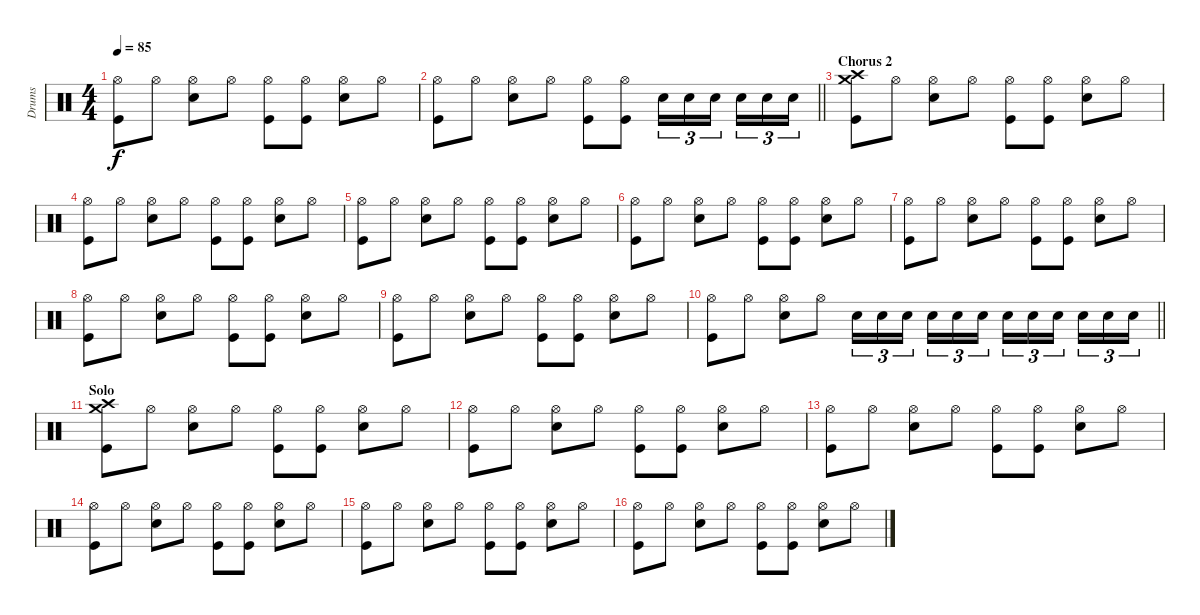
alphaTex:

\track ("Drums" "Drums") {instrument percussion}
\staff {score}
\articulation defaults
\ts (4 4)
\tempo 85
\clef neutral
\ks c
("Hi-Hat (open)" "Kick (hit)").8{dy f} "Hi-Hat (open)".8 ("Hi-Hat (open)" "Snare (hit) 2").8 "Hi-Hat (open)".8 ("Hi-Hat (open)" "Kick (hit)").8 ("Hi-Hat (open)" "Kick (hit)").8 ("Hi-Hat (open)" "Snare (hit) 2").8 "Hi-Hat (open)".8 |
\barLineRight lightlight
("Hi-Hat (open)" "Kick (hit)").8 "Hi-Hat (open)".8 ("Hi-Hat (open)" "Snare (hit) 2").8 "Hi-Hat (open)".8 ("Hi-Hat (open)" "Kick (hit)").8 ("Hi-Hat (open)" "Kick (hit)").8 "Snare (hit) 2".16{tu (3 2)} "Snare (hit) 2".16{tu (3 2)} "Snare (hit) 2".16{tu (3 2) beam splitsecondary} "Snare (hit) 2".16{tu (3 2)} "Snare (hit) 2".16{tu (3 2)} "Snare (hit) 2".16{tu (3 2)} |
\section ("" "Chorus 2")
("Crash high (hit)" "Crash medium (hit)" "Kick (hit)").8 "Hi-Hat (open)".8 ("Hi-Hat (open)" "Snare (hit) 2").8 "Hi-Hat (open)".8 ("Hi-Hat (open)" "Kick (hit)").8 ("Hi-Hat (open)" "Kick (hit)").8 ("Hi-Hat (open)" "Snare (hit) 2").8 "Hi-Hat (open)".8 |
("Hi-Hat (open)" "Kick (hit)").8 "Hi-Hat (open)".8 ("Hi-Hat (open)" "Snare (hit) 2").8 "Hi-Hat (open)".8 ("Hi-Hat (open)" "Kick (hit)").8 ("Hi-Hat (open)" "Kick (hit)").8 ("Hi-Hat (open)" "Snare (hit) 2").8 "Hi-Hat (open)".8 |
("Hi-Hat (open)" "Kick (hit)").8 "Hi-Hat (open)".8 ("Hi-Hat (open)" "Snare (hit) 2").8 "Hi-Hat (open)".8 ("Hi-Hat (open)" "Kick (hit)").8 ("Hi-Hat (open)" "Kick (hit)").8 ("Hi-Hat (open)" "Snare (hit) 2").8 "Hi-Hat (open)".8 |
("Hi-Hat (open)" "Kick (hit)").8 "Hi-Hat (open)".8 ("Hi-Hat (open)" "Snare (hit) 2").8 "Hi-Hat (open)".8 ("Hi-Hat (open)" "Kick (hit)").8 ("Hi-Hat (open)" "Kick (hit)").8 ("Hi-Hat (open)" "Snare (hit) 2").8 "Hi-Hat (open)".8 |
("Hi-Hat (open)" "Kick (hit)").8 "Hi-Hat (open)".8 ("Hi-Hat (open)" "Snare (hit) 2").8 "Hi-Hat (open)".8 ("Hi-Hat (open)" "Kick (hit)").8 ("Hi-Hat (open)" "Kick (hit)").8 ("Hi-Hat (open)" "Snare (hit) 2").8 "Hi-Hat (open)".8 |
("Hi-Hat (open)" "Kick (hit)").8 "Hi-Hat (open)".8 ("Hi-Hat (open)" "Snare (hit) 2").8 "Hi-Hat (open)".8 ("Hi-Hat (open)" "Kick (hit)").8 ("Hi-Hat (open)" "Kick (hit)").8 ("Hi-Hat (open)" "Snare (hit) 2").8 "Hi-Hat (open)".8 |
("Hi-Hat (open)" "Kick (hit)").8 "Hi-Hat (open)".8 ("Hi-Hat (open)" "Snare (hit) 2").8 "Hi-Hat (open)".8 ("Hi-Hat (open)" "Kick (hit)").8 ("Hi-Hat (open)" "Kick (hit)").8 ("Hi-Hat (open)" "Snare (hit) 2").8 "Hi-Hat (open)".8 |
\barLineRight lightlight
("Hi-Hat (open)" "Kick (hit)").8 "Hi-Hat (open)".8 ("Hi-Hat (open)" "Snare (hit) 2").8 "Hi-Hat (open)".8 "Snare (hit) 2".16{tu (3 2)} "Snare (hit) 2".16{tu (3 2)} "Snare (hit) 2".16{tu (3 2) beam splitsecondary} "Snare (hit) 2".16{tu (3 2)} "Snare (hit) 2".16{tu (3 2)} "Snare (hit) 2".16{tu (3 2)} "Snare (hit) 2".16{tu (3 2)} "Snare (hit) 2".16{tu (3 2)} "Snare (hit) 2".16{tu (3 2) beam splitsecondary} "Snare (hit) 2".16{tu (3 2)} "Snare (hit) 2".16{tu (3 2)} "Snare (hit) 2".16{tu (3 2)} |
\section ("" "Solo")
("Crash high (hit)" "Crash medium (hit)" "Kick (hit)").8 "Hi-Hat (open)".8 ("Hi-Hat (open)" "Snare (hit) 2").8 "Hi-Hat (open)".8 ("Hi-Hat (open)" "Kick (hit)").8 ("Hi-Hat (open)" "Kick (hit)").8 ("Hi-Hat (open)" "Snare (hit) 2").8 "Hi-Hat (open)".8 |
("Hi-Hat (open)" "Kick (hit)").8 "Hi-Hat (open)".8 ("Hi-Hat (open)" "Snare (hit) 2").8 "Hi-Hat (open)".8 ("Hi-Hat (open)" "Kick (hit)").8 ("Hi-Hat (open)" "Kick (hit)").8 ("Hi-Hat (open)" "Snare (hit) 2").8 "Hi-Hat (open)".8 |
("Hi-Hat (open)" "Kick (hit)").8 "Hi-Hat (open)".8 ("Hi-Hat (open)" "Snare (hit) 2").8 "Hi-Hat (open)".8 ("Hi-Hat (open)" "Kick (hit)").8 ("Hi-Hat (open)" "Kick (hit)").8 ("Hi-Hat (open)" "Snare (hit) 2").8 "Hi-Hat (open)".8 |
("Hi-Hat (open)" "Kick (hit)").8 "Hi-Hat (open)".8 ("Hi-Hat (open)" "Snare (hit) 2").8 "Hi-Hat (open)".8 ("Hi-Hat (open)" "Kick (hit)").8 ("Hi-Hat (open)" "Kick (hit)").8 ("Hi-Hat (open)" "Snare (hit) 2").8 "Hi-Hat (open)".8 |
("Hi-Hat (open)" "Kick (hit)").8 "Hi-Hat (open)".8 ("Hi-Hat (open)" "Snare (hit) 2").8 "Hi-Hat (open)".8 ("Hi-Hat (open)" "Kick (hit)").8 ("Hi-Hat (open)" "Kick (hit)").8 ("Hi-Hat (open)" "Snare (hit) 2").8 "Hi-Hat (open)".8 |
("Hi-Hat (open)" "Kick (hit)").8 "Hi-Hat (open)".8 ("Hi-Hat (open)" "Snare (hit) 2").8 "Hi-Hat (open)".8 ("Hi-Hat (open)" "Kick (hit)").8 ("Hi-Hat (open)" "Kick (hit)").8 ("Hi-Hat (open)" "Snare (hit) 2").8 "Hi-Hat (open)".8
